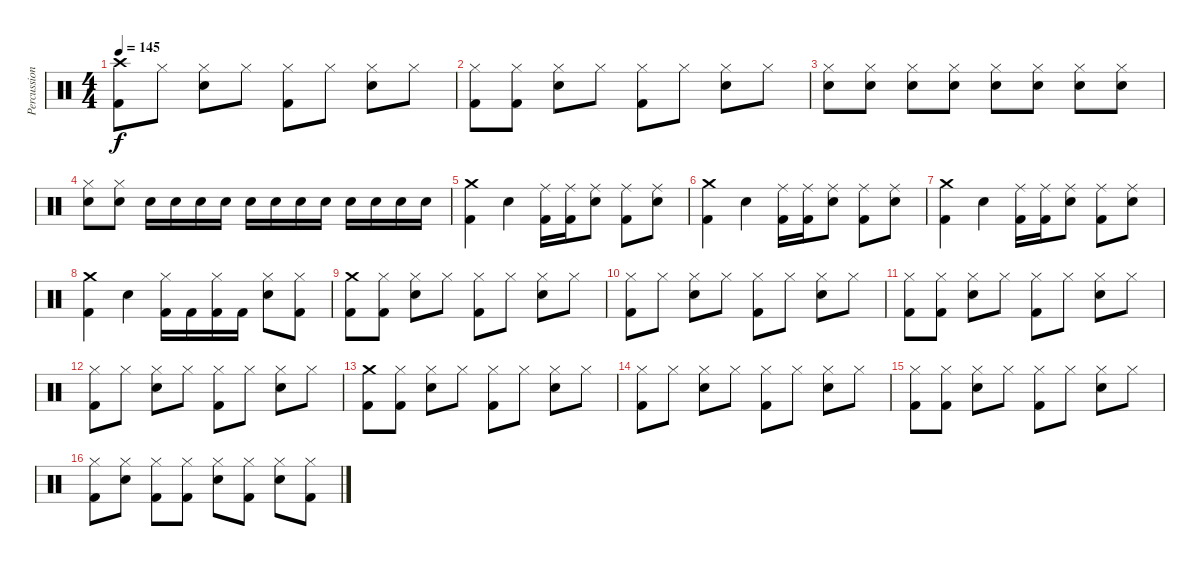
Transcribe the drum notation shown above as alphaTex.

\track ("Percussion" "Percussion") {instrument percussion}
\staff {score}
\articulation defaults
\ts (4 4)
\tempo 145
\clef neutral
\ks c
("Kick (hit) 2" "Crash high (hit)").8{dy f} "Hi-Hat (closed)".8 ("Snare (hit) 2" "Hi-Hat (closed)").8 "Hi-Hat (closed)".8 ("Kick (hit) 2" "Hi-Hat (closed)").8 "Hi-Hat (closed)".8 ("Snare (hit) 2" "Hi-Hat (closed)").8 "Hi-Hat (closed)".8 |
("Kick (hit) 2" "Hi-Hat (closed)").8 ("Kick (hit) 2" "Hi-Hat (closed)").8 ("Snare (hit) 2" "Hi-Hat (closed)").8 "Hi-Hat (closed)".8 ("Kick (hit) 2" "Hi-Hat (closed)").8 "Hi-Hat (closed)".8 ("Snare (hit) 2" "Hi-Hat (closed)").8 "Hi-Hat (closed)".8 |
("Snare (hit) 2" "Hi-Hat (closed)").8 ("Snare (hit) 2" "Hi-Hat (closed)").8 ("Snare (hit) 2" "Hi-Hat (closed)").8 ("Snare (hit) 2" "Hi-Hat (closed)").8 ("Snare (hit) 2" "Hi-Hat (closed)").8 ("Snare (hit) 2" "Hi-Hat (closed)").8 ("Snare (hit) 2" "Hi-Hat (closed)").8 ("Snare (hit) 2" "Hi-Hat (closed)").8 |
("Snare (hit) 2" "Hi-Hat (closed)").8 ("Snare (hit) 2" "Hi-Hat (closed)").8 "Snare (hit) 2".16 "Snare (hit) 2".16 "Snare (hit) 2".16 "Snare (hit) 2".16 "Snare (hit) 2".16 "Snare (hit) 2".16 "Snare (hit) 2".16 "Snare (hit) 2".16 "Snare (hit) 2".16 "Snare (hit) 2".16 "Snare (hit) 2".16 "Snare (hit) 2".16 |
("Kick (hit) 2" "Crash medium (hit)").4 "Snare (hit) 2".4 ("Kick (hit) 2" "Ride (middle)").16 ("Kick (hit) 2" "Ride (middle)").16 ("Snare (hit) 2" "Ride (middle)").8 ("Kick (hit) 2" "Ride (middle)").8 ("Snare (hit) 2" "Ride (middle)").8 |
("Kick (hit) 2" "Crash medium (hit)").4 "Snare (hit) 2".4 ("Kick (hit) 2" "Ride (middle)").16 ("Kick (hit) 2" "Ride (middle)").16 ("Snare (hit) 2" "Ride (middle)").8 ("Kick (hit) 2" "Ride (middle)").8 ("Snare (hit) 2" "Ride (middle)").8 |
("Kick (hit) 2" "Crash medium (hit)").4 "Snare (hit) 2".4 ("Kick (hit) 2" "Ride (middle)").16 ("Kick (hit) 2" "Ride (middle)").16 ("Snare (hit) 2" "Ride (middle)").8 ("Kick (hit) 2" "Ride (middle)").8 ("Snare (hit) 2" "Ride (middle)").8 |
("Kick (hit) 2" "Crash medium (hit)").4 "Snare (hit) 2".4 ("Kick (hit) 2" "Hi-Hat (closed)").16 "Kick (hit) 2".16 ("Kick (hit) 2" "Hi-Hat (closed)").16 "Kick (hit) 2".16 ("Snare (hit) 2" "Hi-Hat (closed)").8 ("Kick (hit) 2" "Hi-Hat (closed)").8 |
("Kick (hit) 2" "Crash medium (hit)").8 ("Kick (hit) 2" "Hi-Hat (closed)").8 ("Snare (hit) 2" "Hi-Hat (closed)").8 "Hi-Hat (closed)".8 ("Kick (hit) 2" "Hi-Hat (closed)").8 "Hi-Hat (closed)".8 ("Snare (hit) 2" "Hi-Hat (closed)").8 "Hi-Hat (closed)".8 |
("Kick (hit) 2" "Hi-Hat (closed)").8 "Hi-Hat (closed)".8 ("Snare (hit) 2" "Hi-Hat (closed)").8 "Hi-Hat (closed)".8 ("Kick (hit) 2" "Hi-Hat (closed)").8 "Hi-Hat (closed)".8 ("Snare (hit) 2" "Hi-Hat (closed)").8 "Hi-Hat (closed)".8 |
("Kick (hit) 2" "Hi-Hat (closed)").8 ("Kick (hit) 2" "Hi-Hat (closed)").8 ("Snare (hit) 2" "Hi-Hat (closed)").8 "Hi-Hat (closed)".8 ("Kick (hit) 2" "Hi-Hat (closed)").8 "Hi-Hat (closed)".8 ("Snare (hit) 2" "Hi-Hat (closed)").8 "Hi-Hat (closed)".8 |
("Kick (hit) 2" "Hi-Hat (closed)").8 "Hi-Hat (closed)".8 ("Snare (hit) 2" "Hi-Hat (closed)").8 "Hi-Hat (closed)".8 ("Kick (hit) 2" "Hi-Hat (closed)").8 "Hi-Hat (closed)".8 ("Snare (hit) 2" "Hi-Hat (closed)").8 "Hi-Hat (closed)".8 |
("Kick (hit) 2" "Crash medium (hit)").8 ("Kick (hit) 2" "Hi-Hat (closed)").8 ("Snare (hit) 2" "Hi-Hat (closed)").8 "Hi-Hat (closed)".8 ("Kick (hit) 2" "Hi-Hat (closed)").8 "Hi-Hat (closed)".8 ("Snare (hit) 2" "Hi-Hat (closed)").8 "Hi-Hat (closed)".8 |
("Kick (hit) 2" "Hi-Hat (closed)").8 "Hi-Hat (closed)".8 ("Snare (hit) 2" "Hi-Hat (closed)").8 "Hi-Hat (closed)".8 ("Kick (hit) 2" "Hi-Hat (closed)").8 "Hi-Hat (closed)".8 ("Snare (hit) 2" "Hi-Hat (closed)").8 "Hi-Hat (closed)".8 |
("Kick (hit) 2" "Hi-Hat (closed)").8 ("Kick (hit) 2" "Hi-Hat (closed)").8 ("Snare (hit) 2" "Hi-Hat (closed)").8 "Hi-Hat (closed)".8 ("Kick (hit) 2" "Hi-Hat (closed)").8 "Hi-Hat (closed)".8 ("Snare (hit) 2" "Hi-Hat (closed)").8 "Hi-Hat (closed)".8 |
("Kick (hit) 2" "Hi-Hat (closed)").8 ("Snare (hit) 2" "Hi-Hat (closed)").8 ("Kick (hit) 2" "Hi-Hat (closed)").8 ("Kick (hit) 2" "Hi-Hat (closed)").8 ("Snare (hit) 2" "Hi-Hat (closed)").8 ("Kick (hit) 2" "Hi-Hat (closed)").8 ("Snare (hit) 2" "Hi-Hat (closed)").8 ("Kick (hit) 2" "Hi-Hat (closed)").8
